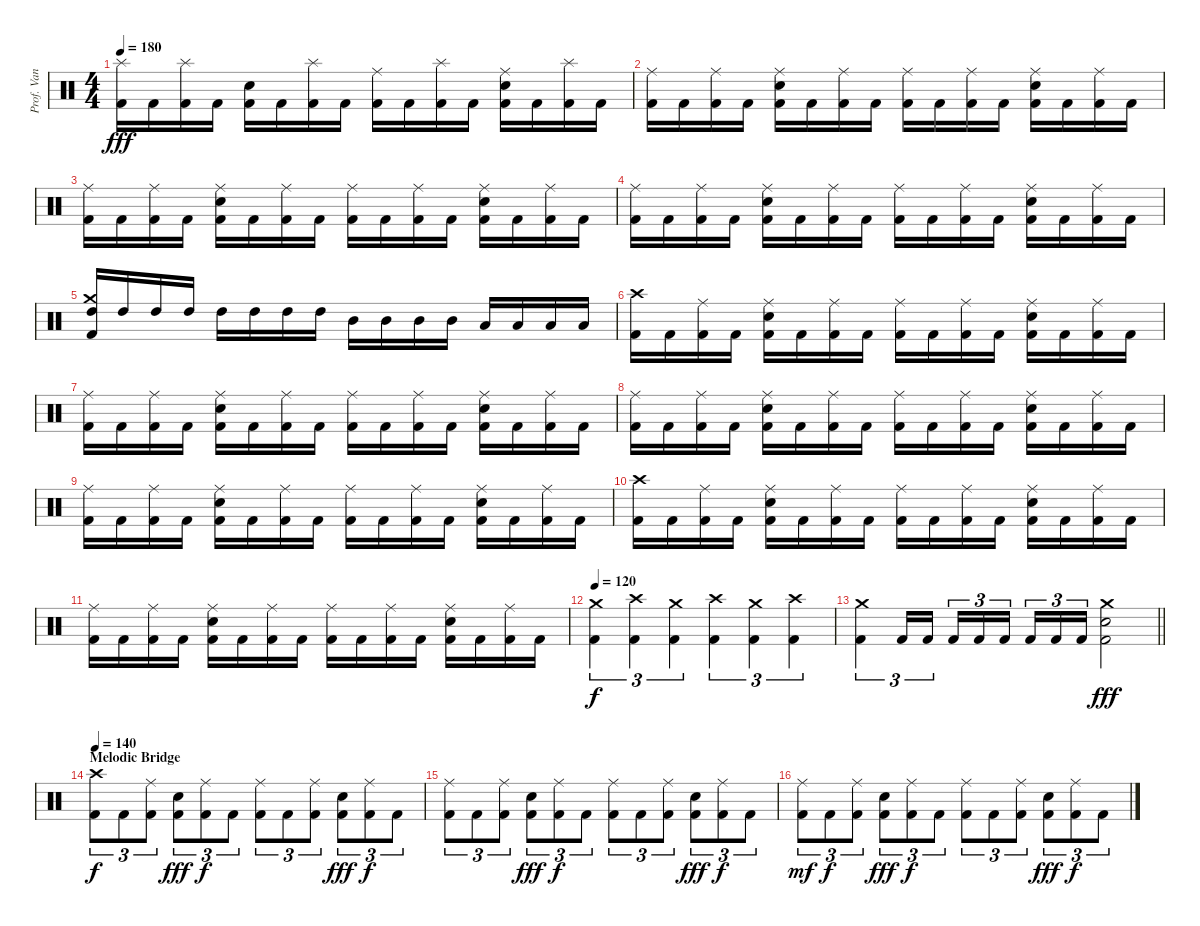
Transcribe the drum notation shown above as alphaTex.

\track ("Prof. Van Helsing (Drums)" "Prof. Van ") {instrument percussion}
\staff {score}
\articulation defaults
\ts (4 4)
\tempo 180
\clef neutral
\ks c
("Splash (hit)" "Kick (hit) 2").16{dy fff} "Kick (hit) 2".16 ("Splash (hit)" "Kick (hit) 2").16 "Kick (hit) 2".16 ("Snare (hit) 2" "Kick (hit) 2").16 "Kick (hit) 2".16 ("Splash (hit)" "Kick (hit) 2").16 "Kick (hit) 2".16 ("Ride (middle)" "Kick (hit) 2").16 "Kick (hit) 2".16 ("Splash (hit)" "Kick (hit) 2").16 "Kick (hit) 2".16 ("Ride (middle)" "Snare (hit) 2" "Kick (hit) 2").16 "Kick (hit) 2".16 ("Splash (hit)" "Kick (hit) 2").16 "Kick (hit) 2".16 |
("Ride (middle)" "Kick (hit) 2").16 "Kick (hit) 2".16 ("Ride (middle)" "Kick (hit) 2").16 "Kick (hit) 2".16 ("Ride (middle)" "Snare (hit) 2" "Kick (hit) 2").16 "Kick (hit) 2".16 ("Ride (middle)" "Kick (hit) 2").16 "Kick (hit) 2".16 ("Ride (middle)" "Kick (hit) 2").16 "Kick (hit) 2".16 ("Ride (middle)" "Kick (hit) 2").16 "Kick (hit) 2".16 ("Ride (middle)" "Snare (hit) 2" "Kick (hit) 2").16 "Kick (hit) 2".16 ("Ride (middle)" "Kick (hit) 2").16 "Kick (hit) 2".16 |
("Ride (middle)" "Kick (hit) 2").16 "Kick (hit) 2".16 ("Ride (middle)" "Kick (hit) 2").16 "Kick (hit) 2".16 ("Ride (middle)" "Snare (hit) 2" "Kick (hit) 2").16 "Kick (hit) 2".16 ("Ride (middle)" "Kick (hit) 2").16 "Kick (hit) 2".16 ("Ride (middle)" "Kick (hit) 2").16 "Kick (hit) 2".16 ("Ride (middle)" "Kick (hit) 2").16 "Kick (hit) 2".16 ("Ride (middle)" "Snare (hit) 2" "Kick (hit) 2").16 "Kick (hit) 2".16 ("Ride (middle)" "Kick (hit) 2").16 "Kick (hit) 2".16 |
("Ride (middle)" "Kick (hit) 2").16 "Kick (hit) 2".16 ("Ride (middle)" "Kick (hit) 2").16 "Kick (hit) 2".16 ("Ride (middle)" "Snare (hit) 2" "Kick (hit) 2").16 "Kick (hit) 2".16 ("Ride (middle)" "Kick (hit) 2").16 "Kick (hit) 2".16 ("Ride (middle)" "Kick (hit) 2").16 "Kick (hit) 2".16 ("Ride (middle)" "Kick (hit) 2").16 "Kick (hit) 2".16 ("Ride (middle)" "Snare (hit) 2" "Kick (hit) 2").16 "Kick (hit) 2".16 ("Ride (middle)" "Kick (hit) 2").16 "Kick (hit) 2".16 |
("Crash medium (hit)" "High Tom (hit)" "Kick (hit) 2").16 "High Tom (hit)".16 "High Tom (hit)".16 "High Tom (hit)".16 "High Tom (hit)".16 "High Tom (hit)".16 "High Tom (hit)".16 "High Tom (hit)".16 "Mid Tom (hit)".16 "Mid Tom (hit)".16 "Mid Tom (hit)".16 "Mid Tom (hit)".16 "Low Tom (hit)".16 "Low Tom (hit)".16 "Low Tom (hit)".16 "Low Tom (hit)".16 |
("Crash high (hit)" "Kick (hit) 2").16 "Kick (hit) 2".16 ("Ride (middle)" "Kick (hit) 2").16 "Kick (hit) 2".16 ("Ride (middle)" "Snare (hit) 2" "Kick (hit) 2").16 "Kick (hit) 2".16 ("Ride (middle)" "Kick (hit) 2").16 "Kick (hit) 2".16 ("Ride (middle)" "Kick (hit) 2").16 "Kick (hit) 2".16 ("Ride (middle)" "Kick (hit) 2").16 "Kick (hit) 2".16 ("Ride (middle)" "Snare (hit) 2" "Kick (hit) 2").16 "Kick (hit) 2".16 ("Ride (middle)" "Kick (hit) 2").16 "Kick (hit) 2".16 |
("Ride (middle)" "Kick (hit) 2").16 "Kick (hit) 2".16 ("Ride (middle)" "Kick (hit) 2").16 "Kick (hit) 2".16 ("Ride (middle)" "Snare (hit) 2" "Kick (hit) 2").16 "Kick (hit) 2".16 ("Ride (middle)" "Kick (hit) 2").16 "Kick (hit) 2".16 ("Ride (middle)" "Kick (hit) 2").16 "Kick (hit) 2".16 ("Ride (middle)" "Kick (hit) 2").16 "Kick (hit) 2".16 ("Ride (middle)" "Snare (hit) 2" "Kick (hit) 2").16 "Kick (hit) 2".16 ("Ride (middle)" "Kick (hit) 2").16 "Kick (hit) 2".16 |
("Ride (middle)" "Kick (hit) 2").16 "Kick (hit) 2".16 ("Ride (middle)" "Kick (hit) 2").16 "Kick (hit) 2".16 ("Ride (middle)" "Snare (hit) 2" "Kick (hit) 2").16 "Kick (hit) 2".16 ("Ride (middle)" "Kick (hit) 2").16 "Kick (hit) 2".16 ("Ride (middle)" "Kick (hit) 2").16 "Kick (hit) 2".16 ("Ride (middle)" "Kick (hit) 2").16 "Kick (hit) 2".16 ("Ride (middle)" "Snare (hit) 2" "Kick (hit) 2").16 "Kick (hit) 2".16 ("Ride (middle)" "Kick (hit) 2").16 "Kick (hit) 2".16 |
("Ride (middle)" "Kick (hit) 2").16 "Kick (hit) 2".16 ("Ride (middle)" "Kick (hit) 2").16 "Kick (hit) 2".16 ("Ride (middle)" "Snare (hit) 2" "Kick (hit) 2").16 "Kick (hit) 2".16 ("Ride (middle)" "Kick (hit) 2").16 "Kick (hit) 2".16 ("Ride (middle)" "Kick (hit) 2").16 "Kick (hit) 2".16 ("Ride (middle)" "Kick (hit) 2").16 "Kick (hit) 2".16 ("Ride (middle)" "Snare (hit) 2" "Kick (hit) 2").16 "Kick (hit) 2".16 ("Ride (middle)" "Kick (hit) 2").16 "Kick (hit) 2".16 |
("Crash high (hit)" "Kick (hit) 2").16 "Kick (hit) 2".16 ("Ride (middle)" "Kick (hit) 2").16 "Kick (hit) 2".16 ("Ride (middle)" "Snare (hit) 2" "Kick (hit) 2").16 "Kick (hit) 2".16 ("Ride (middle)" "Kick (hit) 2").16 "Kick (hit) 2".16 ("Ride (middle)" "Kick (hit) 2").16 "Kick (hit) 2".16 ("Ride (middle)" "Kick (hit) 2").16 "Kick (hit) 2".16 ("Ride (middle)" "Snare (hit) 2" "Kick (hit) 2").16 "Kick (hit) 2".16 ("Ride (middle)" "Kick (hit) 2").16 "Kick (hit) 2".16 |
("Ride (middle)" "Kick (hit) 2").16 "Kick (hit) 2".16 ("Ride (middle)" "Kick (hit) 2").16 "Kick (hit) 2".16 ("Ride (middle)" "Snare (hit) 2" "Kick (hit) 2").16 "Kick (hit) 2".16 ("Ride (middle)" "Kick (hit) 2").16 "Kick (hit) 2".16 ("Ride (middle)" "Kick (hit) 2").16 "Kick (hit) 2".16 ("Ride (middle)" "Kick (hit) 2").16 "Kick (hit) 2".16 ("Ride (middle)" "Snare (hit) 2" "Kick (hit) 2").16 "Kick (hit) 2".16 ("Ride (middle)" "Kick (hit) 2").16 "Kick (hit) 2".16 |
\tempo 120
("Crash medium (hit)" "Kick (hit) 2").4{tu (3 2) dy f} ("Crash high (hit)" "Kick (hit) 2").4{tu (3 2)} ("Crash medium (hit)" "Kick (hit) 2").4{tu (3 2)} ("Crash high (hit)" "Kick (hit) 2").4{tu (3 2)} ("Crash medium (hit)" "Kick (hit) 2").4{tu (3 2)} ("Crash high (hit)" "Kick (hit) 2").4{tu (3 2)} |
\barLineRight lightlight
("Crash medium (hit)" "Kick (hit) 2").4{tu (3 2)} "Kick (hit) 2".16{tu (3 2)} "Kick (hit) 2".16{tu (3 2)} "Kick (hit) 2".16{tu (3 2)} "Kick (hit) 2".16{tu (3 2)} "Kick (hit) 2".16{tu (3 2) beam splitsecondary} "Kick (hit) 2".16{tu (3 2)} "Kick (hit) 2".16{tu (3 2)} "Kick (hit) 2".16{tu (3 2)} ("Crash medium (hit)" "Snare (hit) 2" "Kick (hit) 2").2{dy fff} |
\section ("" "Melodic Bridge")
\tempo 140
("Crash high (hit)" "Kick (hit) 2").8{tu (3 2) dy f} "Kick (hit) 2".8{tu (3 2)} ("Ride (middle)" "Kick (hit) 2").8{tu (3 2)} ("Snare (hit) 2" "Kick (hit) 2").8{tu (3 2) dy fff} ("Ride (middle)" "Kick (hit) 2").8{tu (3 2) dy f} "Kick (hit) 2".8{tu (3 2)} ("Ride (middle)" "Kick (hit) 2").8{tu (3 2)} "Kick (hit) 2".8{tu (3 2)} ("Ride (middle)" "Kick (hit) 2").8{tu (3 2)} ("Snare (hit) 2" "Kick (hit) 2").8{tu (3 2) dy fff} ("Ride (middle)" "Kick (hit) 2").8{tu (3 2) dy f} "Kick (hit) 2".8{tu (3 2)} |
("Ride (middle)" "Kick (hit) 2").8{tu (3 2)} "Kick (hit) 2".8{tu (3 2)} ("Ride (middle)" "Kick (hit) 2").8{tu (3 2)} ("Snare (hit) 2" "Kick (hit) 2").8{tu (3 2) dy fff} ("Ride (middle)" "Kick (hit) 2").8{tu (3 2) dy f} "Kick (hit) 2".8{tu (3 2)} ("Ride (middle)" "Kick (hit) 2").8{tu (3 2)} "Kick (hit) 2".8{tu (3 2)} ("Ride (middle)" "Kick (hit) 2").8{tu (3 2)} ("Snare (hit) 2" "Kick (hit) 2").8{tu (3 2) dy fff} ("Ride (middle)" "Kick (hit) 2").8{tu (3 2) dy f} "Kick (hit) 2".8{tu (3 2)} |
("Ride (middle)" "Kick (hit) 2").8{tu (3 2) dy mf} "Kick (hit) 2".8{tu (3 2) dy f} ("Ride (middle)" "Kick (hit) 2").8{tu (3 2)} ("Snare (hit) 2" "Kick (hit) 2").8{tu (3 2) dy fff} ("Ride (middle)" "Kick (hit) 2").8{tu (3 2) dy f} "Kick (hit) 2".8{tu (3 2)} ("Ride (middle)" "Kick (hit) 2").8{tu (3 2)} "Kick (hit) 2".8{tu (3 2)} ("Ride (middle)" "Kick (hit) 2").8{tu (3 2)} ("Snare (hit) 2" "Kick (hit) 2").8{tu (3 2) dy fff} ("Ride (middle)" "Kick (hit) 2").8{tu (3 2) dy f} "Kick (hit) 2".8{tu (3 2)}
